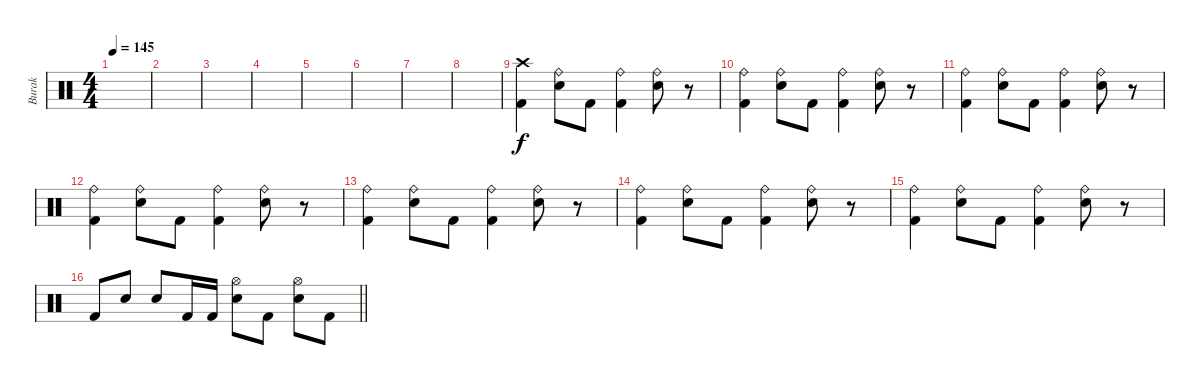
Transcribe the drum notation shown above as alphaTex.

\track ("Burak" "Burak") {instrument percussion}
\staff {score}
\articulation defaults
\ts (4 4)
\tempo 145
\clef neutral
\ks c
|
|
|
|
|
|
|
|
("Crash high (hit)" "Kick (hit) 2").4 ("Electric Snare (hit)" "Ride (bell)").8 "Kick (hit) 2".8 ("Ride (bell)" "Kick (hit) 2").4 ("Electric Snare (hit)" "Ride (bell)").8 r.8 |
("Ride (bell)" "Kick (hit) 2").4 ("Electric Snare (hit)" "Ride (bell)").8 "Kick (hit) 2".8 ("Ride (bell)" "Kick (hit) 2").4 ("Electric Snare (hit)" "Ride (bell)").8 r.8 |
("Ride (bell)" "Kick (hit) 2").4 ("Electric Snare (hit)" "Ride (bell)").8 "Kick (hit) 2".8 ("Ride (bell)" "Kick (hit) 2").4 ("Electric Snare (hit)" "Ride (bell)").8 r.8 |
("Ride (bell)" "Kick (hit) 2").4 ("Electric Snare (hit)" "Ride (bell)").8 "Kick (hit) 2".8 ("Ride (bell)" "Kick (hit) 2").4 ("Electric Snare (hit)" "Ride (bell)").8 r.8 |
("Ride (bell)" "Kick (hit) 2").4 ("Electric Snare (hit)" "Ride (bell)").8 "Kick (hit) 2".8 ("Ride (bell)" "Kick (hit) 2").4 ("Electric Snare (hit)" "Ride (bell)").8 r.8 |
("Ride (bell)" "Kick (hit) 2").4 ("Electric Snare (hit)" "Ride (bell)").8 "Kick (hit) 2".8 ("Ride (bell)" "Kick (hit) 2").4 ("Electric Snare (hit)" "Ride (bell)").8 r.8 |
("Ride (bell)" "Kick (hit) 2").4 ("Electric Snare (hit)" "Ride (bell)").8 "Kick (hit) 2".8 ("Ride (bell)" "Kick (hit) 2").4 ("Electric Snare (hit)" "Ride (bell)").8 r.8 |
\barLineRight lightlight "Kick (hit) 2".8 "Electric Snare (hit)".8 "Electric Snare (hit)".8 "Kick (hit) 2".16 "Kick (hit) 2".16
("Hi-Hat (open)" "Electric Snare (hit)").8 "Kick (hit) 2".8 ("Hi-Hat (open)" "Electric Snare (hit)").8 "Kick (hit) 2".8
